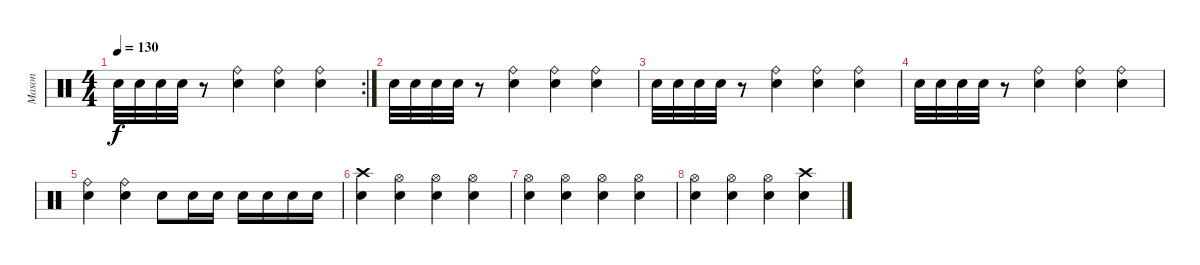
\track ("Mason" "Mason") {instrument percussion}
\staff {score}
\articulation defaults
\rc 2
\ts (4 4)
\tempo 130
\clef neutral
\ks c "Snare (hit) 2".32{dy f} "Snare (hit) 2".32 "Snare (hit) 2".32 "Snare (hit) 2".32
r.8 ("Snare (hit) 2" "Ride (bell)").4 ("Snare (hit) 2" "Ride (bell)").4 ("Snare (hit) 2" "Ride (bell)").4 |
"Snare (hit) 2".32 "Snare (hit) 2".32 "Snare (hit) 2".32 "Snare (hit) 2".32 r.8 ("Snare (hit) 2" "Ride (bell)").4 ("Snare (hit) 2" "Ride (bell)").4 ("Snare (hit) 2" "Ride (bell)").4 |
"Snare (hit) 2".32 "Snare (hit) 2".32 "Snare (hit) 2".32 "Snare (hit) 2".32 r.8 ("Snare (hit) 2" "Ride (bell)").4 ("Snare (hit) 2" "Ride (bell)").4 ("Snare (hit) 2" "Ride (bell)").4 |
"Snare (hit) 2".32 "Snare (hit) 2".32 "Snare (hit) 2".32 "Snare (hit) 2".32 r.8 ("Snare (hit) 2" "Ride (bell)").4 ("Snare (hit) 2" "Ride (bell)").4 ("Snare (hit) 2" "Ride (bell)").4 |
("Snare (hit) 2" "Ride (bell)").4 ("Snare (hit) 2" "Ride (bell)").4 "Snare (hit) 2".8 "Snare (hit) 2".16 "Snare (hit) 2".16 "Snare (hit) 2".16 "Snare (hit) 2".16 "Snare (hit) 2".16 "Snare (hit) 2".16 |
("Snare (hit) 2" "Crash high (hit)").4 ("Snare (hit) 2" "Hi-Hat (open)").4 ("Snare (hit) 2" "Hi-Hat (open)").4 ("Snare (hit) 2" "Hi-Hat (open)").4 |
("Snare (hit) 2" "Hi-Hat (open)").4 ("Snare (hit) 2" "Hi-Hat (open)").4 ("Snare (hit) 2" "Hi-Hat (open)").4 ("Snare (hit) 2" "Hi-Hat (open)").4 |
("Snare (hit) 2" "Hi-Hat (open)").4 ("Snare (hit) 2" "Hi-Hat (open)").4 ("Snare (hit) 2" "Hi-Hat (open)").4 ("Snare (hit) 2" "Crash high (hit)").4
